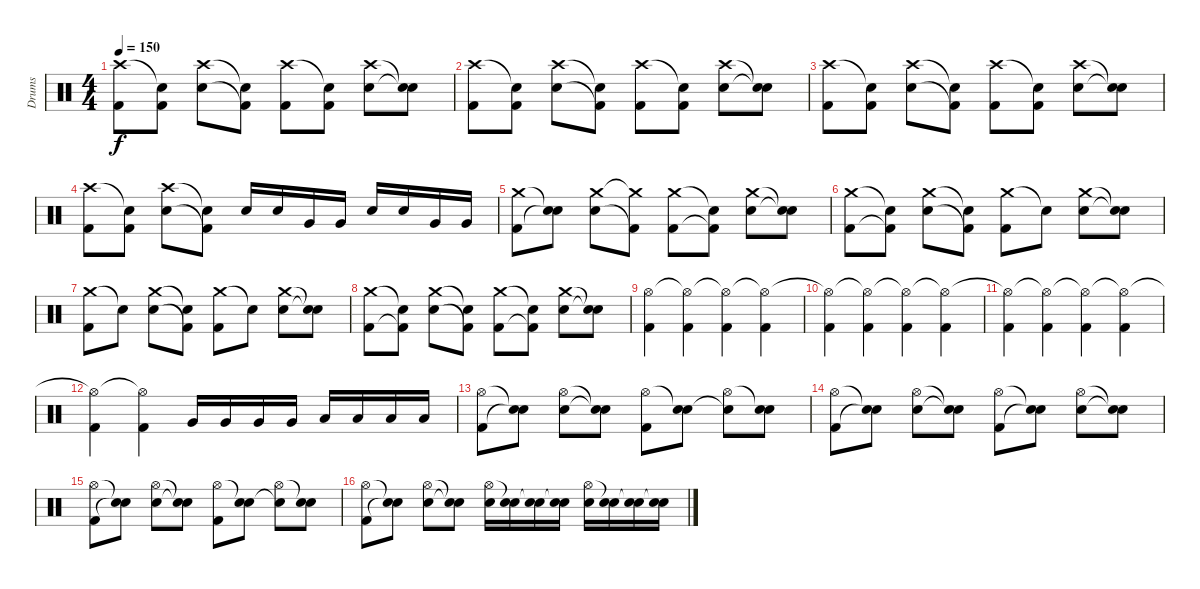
\track ("Drums" "Drums") {instrument percussion bank 127}
\staff {score}
\articulation defaults
\ts (4 4)
\tempo 150
\clef neutral
\ks c
("Crash high (hit)" "Kick (hit) 2").8{dy f} ("Snare (hit)"{t} "Kick (hit) 2").8 ("Crash high (hit)" "Electric Snare (hit)").8 ("Snare (hit)"{t} "Kick (hit) 2"{t}).8 ("Crash high (hit)" "Kick (hit) 2").8 ("Snare (hit)"{t} "Kick (hit) 2").8 ("Crash high (hit)" "Electric Snare (hit)").8 ("Snare (hit)"{t} "Snare (hit)"{t}).8 |
("Crash high (hit)" "Kick (hit) 2").8 ("Snare (hit)"{t} "Kick (hit) 2").8 ("Crash high (hit)" "Electric Snare (hit)").8 ("Snare (hit)"{t} "Kick (hit) 2"{t}).8 ("Crash high (hit)" "Kick (hit) 2").8 ("Snare (hit)"{t} "Kick (hit) 2").8 ("Crash high (hit)" "Electric Snare (hit)").8 ("Snare (hit)"{t} "Snare (hit)"{t}).8 |
("Crash high (hit)" "Kick (hit) 2").8 ("Snare (hit)"{t} "Kick (hit) 2").8 ("Crash high (hit)" "Electric Snare (hit)").8 ("Snare (hit)"{t} "Kick (hit) 2"{t}).8 ("Crash high (hit)" "Kick (hit) 2").8 ("Snare (hit)"{t} "Kick (hit) 2").8 ("Crash high (hit)" "Electric Snare (hit)").8 ("Snare (hit)"{t} "Snare (hit)"{t}).8 |
("Crash high (hit)" "Kick (hit) 2").8 ("Snare (hit)"{t} "Kick (hit) 2").8 ("Crash high (hit)" "Electric Snare (hit)").8 ("Snare (hit)"{t} "Kick (hit) 2"{t}).8 "Electric Snare (hit)".16 "Electric Snare (hit)".16 "Very Low Tom (hit)".16 "Very Low Tom (hit)".16 "Electric Snare (hit)".16 "Electric Snare (hit)".16 "Very Low Tom (hit)".16 "Very Low Tom (hit)".16 |
("Crash medium (hit)" "Kick (hit) 2").8 ("Snare (hit)"{t} "Electric Snare (hit)"{t}).8 ("Crash medium (hit)" "Electric Snare (hit)").8 ("Crash medium (hit)"{t} "Kick (hit) 2"{t}).8 ("Crash medium (hit)" "Kick (hit) 2").8 ("Snare (hit)"{t} "Kick (hit) 2"{t}).8 ("Crash medium (hit)" "Electric Snare (hit)").8 ("Snare (hit)"{t} "Snare (hit)"{t}).8 |
("Crash medium (hit)" "Kick (hit) 2").8 ("Snare (hit)"{t} "Kick (hit) 2"{t}).8 ("Crash medium (hit)" "Electric Snare (hit)").8 ("Snare (hit)"{t} "Kick (hit) 2"{t}).8 ("Crash medium (hit)" "Kick (hit) 2").8 "Snare (hit)"{t}.8 ("Crash medium (hit)" "Electric Snare (hit)").8 ("Snare (hit)"{t} "Snare (hit)"{t}).8 |
("Crash medium (hit)" "Kick (hit) 2").8 "Snare (hit)"{t}.8 ("Crash medium (hit)" "Electric Snare (hit)").8 ("Snare (hit)"{t} "Kick (hit) 2"{t}).8 ("Crash medium (hit)" "Kick (hit) 2").8 "Snare (hit)"{t}.8 ("Crash medium (hit)" "Electric Snare (hit)").8 ("Snare (hit)"{t} "Snare (hit)"{t}).8 |
("Crash medium (hit)" "Kick (hit) 2").8 ("Snare (hit)"{t} "Kick (hit) 2"{t}).8 ("Crash medium (hit)" "Electric Snare (hit)").8 ("Snare (hit)"{t} "Kick (hit) 2"{t}).8 ("Crash medium (hit)" "Kick (hit) 2").8 ("Snare (hit)"{t} "Kick (hit) 2"{t}).8 ("Crash medium (hit)" "Electric Snare (hit)").8 ("Snare (hit)"{t} "Snare (hit)"{t}).8 |
("Hi-Hat (open)" "Kick (hit) 2").4 ("Hi-Hat (open)"{t} "Kick (hit) 2").4 ("Hi-Hat (open)"{t} "Kick (hit) 2").4 ("Hi-Hat (open)"{t} "Kick (hit) 2").4 |
("Hi-Hat (open)"{t} "Kick (hit) 2").4 ("Hi-Hat (open)"{t} "Kick (hit) 2").4 ("Hi-Hat (open)"{t} "Kick (hit) 2").4 ("Hi-Hat (open)"{t} "Kick (hit) 2").4 |
("Hi-Hat (open)"{t} "Kick (hit) 2").4 ("Hi-Hat (open)"{t} "Kick (hit) 2").4 ("Hi-Hat (open)"{t} "Kick (hit) 2").4 ("Hi-Hat (open)"{t} "Kick (hit) 2").4 |
("Hi-Hat (open)"{t} "Kick (hit) 2").4 ("Hi-Hat (open)"{t} "Kick (hit) 2").4 "Very Low Tom (hit)".16 "Very Low Tom (hit)".16 "Very Low Tom (hit)".16 "Very Low Tom (hit)".16 "Low Floor Tom (hit)".16 "Low Floor Tom (hit)".16 "Low Floor Tom (hit)".16 "Low Floor Tom (hit)".16 |
("Hi-Hat (open)" "Kick (hit) 2").8 ("Snare (hit)"{t} "Snare (hit)"{t}).8 ("Hi-Hat (open)" "Electric Snare (hit)").8 ("Snare (hit)"{t} "Snare (hit)"{t}).8 ("Hi-Hat (open)" "Kick (hit) 2").8 ("Snare (hit)"{t} "Electric Snare (hit)").8 ("Hi-Hat (open)" "Snare (hit)"{t}).8 ("Snare (hit)"{t} "Electric Snare (hit)").8 |
("Hi-Hat (open)" "Kick (hit) 2").8 ("Snare (hit)"{t} "Snare (hit)"{t}).8 ("Hi-Hat (open)" "Electric Snare (hit)").8 ("Snare (hit)"{t} "Snare (hit)"{t}).8 ("Hi-Hat (open)" "Kick (hit) 2").8 ("Snare (hit)"{t} "Snare (hit)"{t}).8 ("Hi-Hat (open)" "Electric Snare (hit)").8 ("Snare (hit)"{t} "Snare (hit)"{t}).8 |
("Hi-Hat (open)" "Kick (hit) 2").8 ("Snare (hit)"{t} "Snare (hit)"{t}).8 ("Hi-Hat (open)" "Electric Snare (hit)").8 ("Snare (hit)"{t} "Snare (hit)"{t}).8 ("Hi-Hat (open)" "Kick (hit) 2").8 ("Snare (hit)"{t} "Electric Snare (hit)").8 ("Hi-Hat (open)" "Snare (hit)"{t}).8 ("Snare (hit)"{t} "Electric Snare (hit)").8 |
("Hi-Hat (open)" "Kick (hit) 2").8 ("Snare (hit)"{t} "Snare (hit)"{t}).8 ("Hi-Hat (open)" "Electric Snare (hit)").8 ("Snare (hit)"{t} "Snare (hit)"{t}).8 ("Hi-Hat (open)" "Electric Snare (hit)").16 ("Snare (hit)"{t} "Electric Snare (hit)").16 ("Snare (hit)"{t} "Electric Snare (hit)").16 ("Snare (hit)"{t} "Electric Snare (hit)").16 ("Hi-Hat (open)" "Electric Snare (hit)").16 ("Snare (hit)"{t} "Electric Snare (hit)").16 ("Snare (hit)"{t} "Electric Snare (hit)").16 ("Snare (hit)"{t} "Electric Snare (hit)").16
